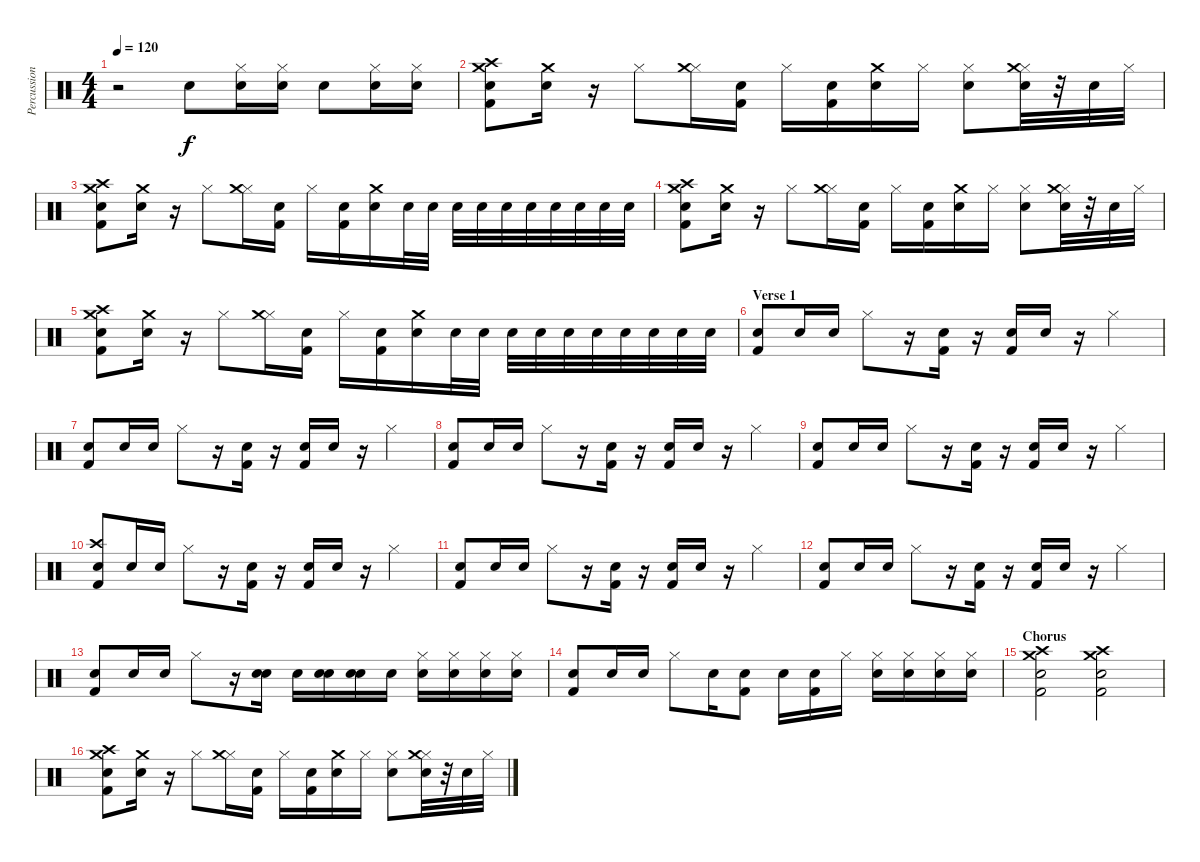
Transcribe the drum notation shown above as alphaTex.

\track ("Percussion" "Percussion") {instrument percussion}
\staff {score}
\articulation defaults
\ts (4 4)
\tempo 120
\clef neutral
\ks c
r.2{dy f} "Snare (hit) 2".8 ("Snare (hit) 2" "Hi-Hat (closed)").16 ("Snare (hit) 2" "Hi-Hat (closed)").16 "Snare (hit) 2".8 ("Snare (hit) 2" "Hi-Hat (closed)").16 ("Snare (hit) 2" "Hi-Hat (closed)").16 |
("Kick (hit) 2" "Snare (hit) 2" "Crash high (hit)" "Crash medium (hit)").8 ("Snare (hit) 2" "Crash medium (hit)").16 r.16 "Hi-Hat (closed)".8 ("Hi-Hat (closed)" "Crash medium (hit)").16 ("Kick (hit) 2" "Snare (hit) 2").16 "Hi-Hat (closed)".16 ("Kick (hit) 2" "Snare (hit) 2").16 ("Snare (hit) 2" "Crash medium (hit)").16 "Hi-Hat (closed)".16 ("Hi-Hat (closed)" "Snare (hit) 2").8 ("Snare (hit) 2" "Hi-Hat (closed)" "Crash medium (hit)").32 r.32 "Snare (hit) 2".32 "Hi-Hat (closed)".32 |
("Kick (hit) 2" "Snare (hit) 2" "Crash high (hit)" "Crash medium (hit)").8 ("Snare (hit) 2" "Crash medium (hit)").16 r.16 "Hi-Hat (closed)".8 ("Hi-Hat (closed)" "Crash medium (hit)").16 ("Kick (hit) 2" "Snare (hit) 2").16 "Hi-Hat (closed)".16 ("Kick (hit) 2" "Snare (hit) 2").16 ("Snare (hit) 2" "Crash medium (hit)").16 "Snare (hit) 2".32 "Snare (hit) 2".32 "Snare (hit) 2".32 "Snare (hit) 2".32 "Snare (hit) 2".32 "Snare (hit) 2".32 "Snare (hit) 2".32 "Snare (hit) 2".32 "Snare (hit) 2".32 "Snare (hit) 2".32 |
("Kick (hit) 2" "Snare (hit) 2" "Crash high (hit)" "Crash medium (hit)").8 ("Snare (hit) 2" "Crash medium (hit)").16 r.16 "Hi-Hat (closed)".8 ("Hi-Hat (closed)" "Crash medium (hit)").16 ("Kick (hit) 2" "Snare (hit) 2").16 "Hi-Hat (closed)".16 ("Kick (hit) 2" "Snare (hit) 2").16 ("Snare (hit) 2" "Crash medium (hit)").16 "Hi-Hat (closed)".16 ("Hi-Hat (closed)" "Snare (hit) 2").8 ("Snare (hit) 2" "Hi-Hat (closed)" "Crash medium (hit)").32 r.32 "Snare (hit) 2".32 "Hi-Hat (closed)".32 |
("Kick (hit) 2" "Snare (hit) 2" "Crash high (hit)" "Crash medium (hit)").8 ("Snare (hit) 2" "Crash medium (hit)").16 r.16 "Hi-Hat (closed)".8 ("Hi-Hat (closed)" "Crash medium (hit)").16 ("Kick (hit) 2" "Snare (hit) 2").16 "Hi-Hat (closed)".16 ("Kick (hit) 2" "Snare (hit) 2").16 ("Snare (hit) 2" "Crash medium (hit)").16 "Snare (hit) 2".32 "Snare (hit) 2".32 "Snare (hit) 2".32 "Snare (hit) 2".32 "Snare (hit) 2".32 "Snare (hit) 2".32 "Snare (hit) 2".32 "Snare (hit) 2".32 "Snare (hit) 2".32 "Snare (hit) 2".32 |
\section ("" "Verse 1")
("Kick (hit) 2" "Electric Snare (hit)").8 "Electric Snare (hit)".16 "Electric Snare (hit)".16 "Hi-Hat (closed)".8 r.16 ("Kick (hit) 2" "Electric Snare (hit)").16 r.16 ("Kick (hit) 2" "Electric Snare (hit)").16 "Electric Snare (hit)".16 r.16 "Hi-Hat (closed)".4 |
("Kick (hit) 2" "Electric Snare (hit)").8 "Electric Snare (hit)".16 "Electric Snare (hit)".16 "Hi-Hat (closed)".8 r.16 ("Kick (hit) 2" "Electric Snare (hit)").16 r.16 ("Kick (hit) 2" "Electric Snare (hit)").16 "Electric Snare (hit)".16 r.16 "Hi-Hat (closed)".4 |
("Kick (hit) 2" "Electric Snare (hit)").8 "Electric Snare (hit)".16 "Electric Snare (hit)".16 "Hi-Hat (closed)".8 r.16 ("Kick (hit) 2" "Electric Snare (hit)").16 r.16 ("Kick (hit) 2" "Electric Snare (hit)").16 "Electric Snare (hit)".16 r.16 "Hi-Hat (closed)".4 |
("Kick (hit) 2" "Electric Snare (hit)").8 "Electric Snare (hit)".16 "Electric Snare (hit)".16 "Hi-Hat (closed)".8 r.16 ("Kick (hit) 2" "Electric Snare (hit)").16 r.16 ("Kick (hit) 2" "Electric Snare (hit)").16 "Electric Snare (hit)".16 r.16 "Hi-Hat (closed)".4 |
("Kick (hit) 2" "Electric Snare (hit)" "Crash high (hit)").8 "Electric Snare (hit)".16 "Electric Snare (hit)".16 "Hi-Hat (closed)".8 r.16 ("Kick (hit) 2" "Electric Snare (hit)").16 r.16 ("Kick (hit) 2" "Electric Snare (hit)").16 "Electric Snare (hit)".16 r.16 "Hi-Hat (closed)".4 |
("Kick (hit) 2" "Electric Snare (hit)").8 "Electric Snare (hit)".16 "Electric Snare (hit)".16 "Hi-Hat (closed)".8 r.16 ("Kick (hit) 2" "Electric Snare (hit)").16 r.16 ("Kick (hit) 2" "Electric Snare (hit)").16 "Electric Snare (hit)".16 r.16 "Hi-Hat (closed)".4 |
("Kick (hit) 2" "Electric Snare (hit)").8 "Electric Snare (hit)".16 "Electric Snare (hit)".16 "Hi-Hat (closed)".8 r.16 ("Kick (hit) 2" "Electric Snare (hit)").16 r.16 ("Kick (hit) 2" "Electric Snare (hit)").16 "Electric Snare (hit)".16 r.16 "Hi-Hat (closed)".4 |
("Kick (hit) 2" "Electric Snare (hit)").8 "Electric Snare (hit)".16 "Electric Snare (hit)".16 "Hi-Hat (closed)".8 r.16 ("Snare (hit) 2" "Electric Snare (hit)").16 "Snare (hit) 2".16 ("Snare (hit) 2" "Electric Snare (hit)").16 ("Snare (hit) 2" "Electric Snare (hit)").16 "Snare (hit) 2".16 ("Snare (hit) 2" "Hi-Hat (closed)").16 ("Snare (hit) 2" "Hi-Hat (closed)").16 ("Snare (hit) 2" "Hi-Hat (closed)").16 ("Snare (hit) 2" "Hi-Hat (closed)").16 |
("Kick (hit) 2" "Electric Snare (hit)").8 "Electric Snare (hit)".16 "Electric Snare (hit)".16 "Hi-Hat (closed)".8 "Electric Snare (hit)".16 ("Kick (hit) 2" "Electric Snare (hit)").8 "Electric Snare (hit)".16 ("Kick (hit) 2" "Electric Snare (hit)").16 "Hi-Hat (closed)".16 ("Hi-Hat (closed)" "Snare (hit) 2").16 ("Hi-Hat (closed)" "Snare (hit) 2").16 ("Hi-Hat (closed)" "Snare (hit) 2").16 ("Hi-Hat (closed)" "Snare (hit) 2").16 |
\section ("" "Chorus")
("Kick (hit) 2" "Snare (hit) 2" "Crash high (hit)" "Crash medium (hit)").2 ("Kick (hit) 2" "Snare (hit) 2" "Crash high (hit)" "Crash medium (hit)").2 |
("Kick (hit) 2" "Snare (hit) 2" "Crash high (hit)" "Crash medium (hit)").8 ("Snare (hit) 2" "Crash medium (hit)").16 r.16 "Hi-Hat (closed)".8 ("Hi-Hat (closed)" "Crash medium (hit)").16 ("Kick (hit) 2" "Snare (hit) 2").16 "Hi-Hat (closed)".16 ("Kick (hit) 2" "Snare (hit) 2").16 ("Snare (hit) 2" "Crash medium (hit)").16 "Hi-Hat (closed)".16 ("Hi-Hat (closed)" "Snare (hit) 2").8 ("Snare (hit) 2" "Hi-Hat (closed)" "Crash medium (hit)").32 r.32 "Snare (hit) 2".32 "Hi-Hat (closed)".32
